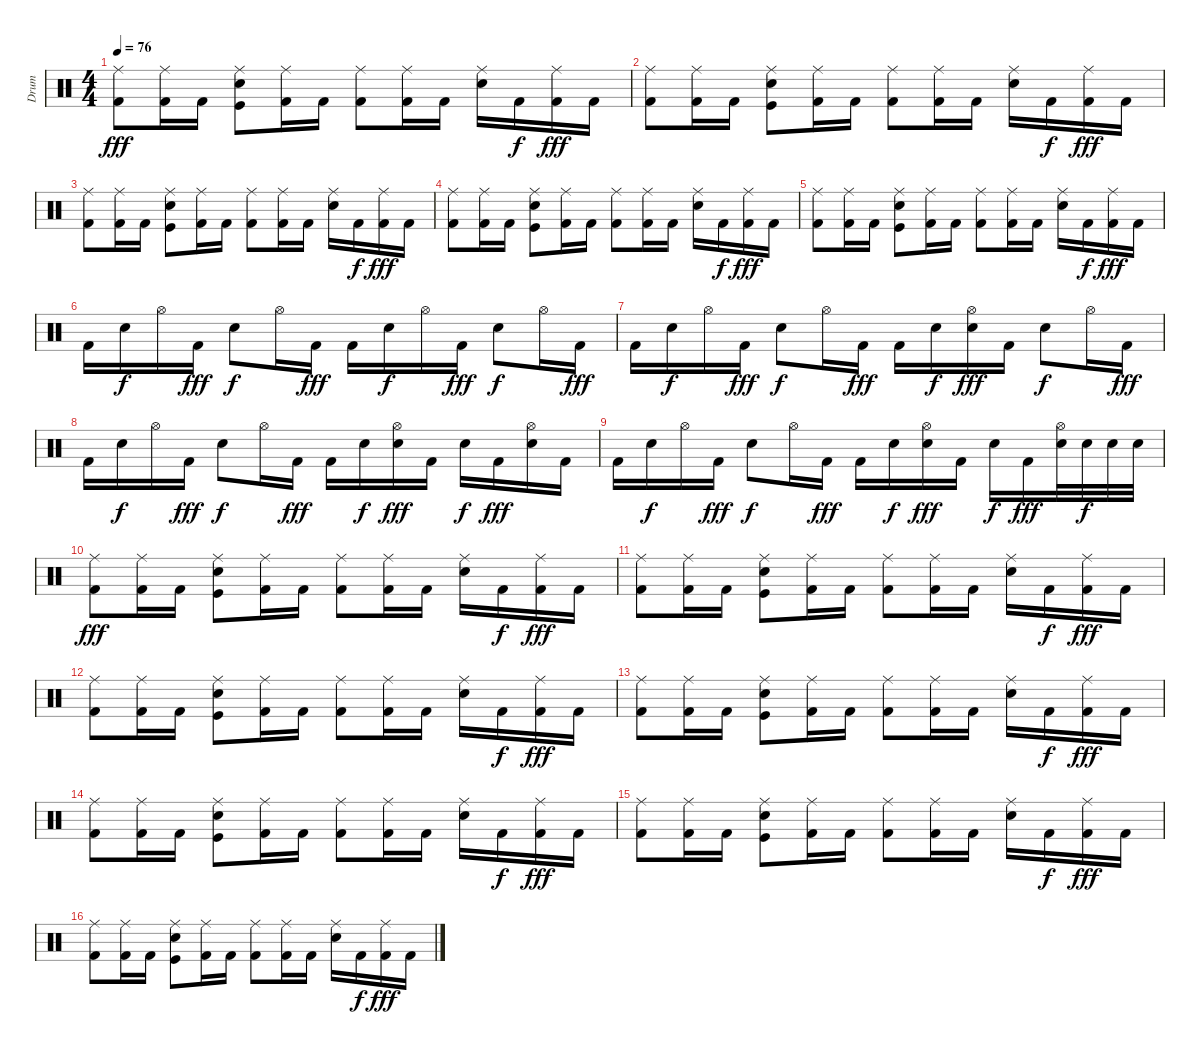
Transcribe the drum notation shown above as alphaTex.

\track ("Drum" "Drum") {instrument percussion}
\staff {score}
\articulation defaults
\ts (4 4)
\tempo 76
\clef neutral
\ks c
("Kick (hit) 2" "Ride (middle)").8{dy fff} ("Kick (hit) 2" "Ride (middle)").16 "Kick (hit) 2".16 ("Kick (hit)" "Electric Snare (hit)" "Ride (middle)").8 ("Kick (hit) 2" "Ride (middle)").16 "Kick (hit) 2".16 ("Kick (hit) 2" "Ride (middle)").8 ("Kick (hit) 2" "Ride (middle)").16 "Kick (hit) 2".16 ("Electric Snare (hit)" "Ride (middle)").16 "Kick (hit) 2".16{dy f} ("Kick (hit) 2" "Ride (middle)").16{dy fff} "Kick (hit) 2".16 |
("Kick (hit) 2" "Ride (middle)").8 ("Kick (hit) 2" "Ride (middle)").16 "Kick (hit) 2".16 ("Kick (hit)" "Electric Snare (hit)" "Ride (middle)").8 ("Kick (hit) 2" "Ride (middle)").16 "Kick (hit) 2".16 ("Kick (hit) 2" "Ride (middle)").8 ("Kick (hit) 2" "Ride (middle)").16 "Kick (hit) 2".16 ("Electric Snare (hit)" "Ride (middle)").16 "Kick (hit) 2".16{dy f} ("Kick (hit) 2" "Ride (middle)").16{dy fff} "Kick (hit) 2".16 |
("Kick (hit) 2" "Ride (middle)").8 ("Kick (hit) 2" "Ride (middle)").16 "Kick (hit) 2".16 ("Kick (hit)" "Electric Snare (hit)" "Ride (middle)").8 ("Kick (hit) 2" "Ride (middle)").16 "Kick (hit) 2".16 ("Kick (hit) 2" "Ride (middle)").8 ("Kick (hit) 2" "Ride (middle)").16 "Kick (hit) 2".16 ("Electric Snare (hit)" "Ride (middle)").16 "Kick (hit) 2".16{dy f} ("Kick (hit) 2" "Ride (middle)").16{dy fff} "Kick (hit) 2".16 |
("Kick (hit) 2" "Ride (middle)").8 ("Kick (hit) 2" "Ride (middle)").16 "Kick (hit) 2".16 ("Kick (hit)" "Electric Snare (hit)" "Ride (middle)").8 ("Kick (hit) 2" "Ride (middle)").16 "Kick (hit) 2".16 ("Kick (hit) 2" "Ride (middle)").8 ("Kick (hit) 2" "Ride (middle)").16 "Kick (hit) 2".16 ("Electric Snare (hit)" "Ride (middle)").16 "Kick (hit) 2".16{dy f} ("Kick (hit) 2" "Ride (middle)").16{dy fff} "Kick (hit) 2".16 |
("Kick (hit) 2" "Ride (middle)").8 ("Kick (hit) 2" "Ride (middle)").16 "Kick (hit) 2".16 ("Kick (hit)" "Electric Snare (hit)" "Ride (middle)").8 ("Kick (hit) 2" "Ride (middle)").16 "Kick (hit) 2".16 ("Kick (hit) 2" "Ride (middle)").8 ("Kick (hit) 2" "Ride (middle)").16 "Kick (hit) 2".16 ("Electric Snare (hit)" "Ride (middle)").16 "Kick (hit) 2".16{dy f} ("Kick (hit) 2" "Ride (middle)").16{dy fff} "Kick (hit) 2".16 |
"Kick (hit) 2".16 "Electric Snare (hit)".16{dy f} "Hi-Hat (open)".16 "Kick (hit) 2".16{dy fff} "Electric Snare (hit)".8{dy f} "Hi-Hat (open)".16 "Kick (hit) 2".16{dy fff} "Kick (hit) 2".16 "Electric Snare (hit)".16{dy f} "Hi-Hat (open)".16 "Kick (hit) 2".16{dy fff} "Electric Snare (hit)".8{dy f} "Hi-Hat (open)".16 "Kick (hit) 2".16{dy fff} |
"Kick (hit) 2".16 "Electric Snare (hit)".16{dy f} "Hi-Hat (open)".16 "Kick (hit) 2".16{dy fff} "Electric Snare (hit)".8{dy f} "Hi-Hat (open)".16 "Kick (hit) 2".16{dy fff} "Kick (hit) 2".16 "Electric Snare (hit)".16{dy f} ("Electric Snare (hit)" "Hi-Hat (open)").16{dy fff} "Kick (hit) 2".16 "Electric Snare (hit)".8{dy f} "Hi-Hat (open)".16 "Kick (hit) 2".16{dy fff} |
"Kick (hit) 2".16 "Electric Snare (hit)".16{dy f} "Hi-Hat (open)".16 "Kick (hit) 2".16{dy fff} "Electric Snare (hit)".8{dy f} "Hi-Hat (open)".16 "Kick (hit) 2".16{dy fff} "Kick (hit) 2".16 "Electric Snare (hit)".16{dy f} ("Electric Snare (hit)" "Hi-Hat (open)").16{dy fff} "Kick (hit) 2".16 "Electric Snare (hit)".16{dy f} "Kick (hit) 2".16{dy fff} ("Electric Snare (hit)" "Hi-Hat (open)").16 "Kick (hit) 2".16 |
"Kick (hit) 2".16 "Electric Snare (hit)".16{dy f} "Hi-Hat (open)".16 "Kick (hit) 2".16{dy fff} "Electric Snare (hit)".8{dy f} "Hi-Hat (open)".16 "Kick (hit) 2".16{dy fff} "Kick (hit) 2".16 "Electric Snare (hit)".16{dy f} ("Electric Snare (hit)" "Hi-Hat (open)").16{dy fff} "Kick (hit) 2".16 "Electric Snare (hit)".16{dy f} "Kick (hit) 2".16{dy fff} ("Electric Snare (hit)" "Hi-Hat (open)").32 "Electric Snare (hit)".32{dy f} "Electric Snare (hit)".32 "Electric Snare (hit)".32 |
("Kick (hit) 2" "Ride (middle)").8{dy fff} ("Kick (hit) 2" "Ride (middle)").16 "Kick (hit) 2".16 ("Kick (hit)" "Electric Snare (hit)" "Ride (middle)").8 ("Kick (hit) 2" "Ride (middle)").16 "Kick (hit) 2".16 ("Kick (hit) 2" "Ride (middle)").8 ("Kick (hit) 2" "Ride (middle)").16 "Kick (hit) 2".16 ("Electric Snare (hit)" "Ride (middle)").16 "Kick (hit) 2".16{dy f} ("Kick (hit) 2" "Ride (middle)").16{dy fff} "Kick (hit) 2".16 |
("Kick (hit) 2" "Ride (middle)").8 ("Kick (hit) 2" "Ride (middle)").16 "Kick (hit) 2".16 ("Kick (hit)" "Electric Snare (hit)" "Ride (middle)").8 ("Kick (hit) 2" "Ride (middle)").16 "Kick (hit) 2".16 ("Kick (hit) 2" "Ride (middle)").8 ("Kick (hit) 2" "Ride (middle)").16 "Kick (hit) 2".16 ("Electric Snare (hit)" "Ride (middle)").16 "Kick (hit) 2".16{dy f} ("Kick (hit) 2" "Ride (middle)").16{dy fff} "Kick (hit) 2".16 |
("Kick (hit) 2" "Ride (middle)").8 ("Kick (hit) 2" "Ride (middle)").16 "Kick (hit) 2".16 ("Kick (hit)" "Electric Snare (hit)" "Ride (middle)").8 ("Kick (hit) 2" "Ride (middle)").16 "Kick (hit) 2".16 ("Kick (hit) 2" "Ride (middle)").8 ("Kick (hit) 2" "Ride (middle)").16 "Kick (hit) 2".16 ("Electric Snare (hit)" "Ride (middle)").16 "Kick (hit) 2".16{dy f} ("Kick (hit) 2" "Ride (middle)").16{dy fff} "Kick (hit) 2".16 |
("Kick (hit) 2" "Ride (middle)").8 ("Kick (hit) 2" "Ride (middle)").16 "Kick (hit) 2".16 ("Kick (hit)" "Electric Snare (hit)" "Ride (middle)").8 ("Kick (hit) 2" "Ride (middle)").16 "Kick (hit) 2".16 ("Kick (hit) 2" "Ride (middle)").8 ("Kick (hit) 2" "Ride (middle)").16 "Kick (hit) 2".16 ("Electric Snare (hit)" "Ride (middle)").16 "Kick (hit) 2".16{dy f} ("Kick (hit) 2" "Ride (middle)").16{dy fff} "Kick (hit) 2".16 |
("Kick (hit) 2" "Ride (middle)").8 ("Kick (hit) 2" "Ride (middle)").16 "Kick (hit) 2".16 ("Kick (hit)" "Electric Snare (hit)" "Ride (middle)").8 ("Kick (hit) 2" "Ride (middle)").16 "Kick (hit) 2".16 ("Kick (hit) 2" "Ride (middle)").8 ("Kick (hit) 2" "Ride (middle)").16 "Kick (hit) 2".16 ("Electric Snare (hit)" "Ride (middle)").16 "Kick (hit) 2".16{dy f} ("Kick (hit) 2" "Ride (middle)").16{dy fff} "Kick (hit) 2".16 |
("Kick (hit) 2" "Ride (middle)").8 ("Kick (hit) 2" "Ride (middle)").16 "Kick (hit) 2".16 ("Kick (hit)" "Electric Snare (hit)" "Ride (middle)").8 ("Kick (hit) 2" "Ride (middle)").16 "Kick (hit) 2".16 ("Kick (hit) 2" "Ride (middle)").8 ("Kick (hit) 2" "Ride (middle)").16 "Kick (hit) 2".16 ("Electric Snare (hit)" "Ride (middle)").16 "Kick (hit) 2".16{dy f} ("Kick (hit) 2" "Ride (middle)").16{dy fff} "Kick (hit) 2".16 |
("Kick (hit) 2" "Ride (middle)").8 ("Kick (hit) 2" "Ride (middle)").16 "Kick (hit) 2".16 ("Kick (hit)" "Electric Snare (hit)" "Ride (middle)").8 ("Kick (hit) 2" "Ride (middle)").16 "Kick (hit) 2".16 ("Kick (hit) 2" "Ride (middle)").8 ("Kick (hit) 2" "Ride (middle)").16 "Kick (hit) 2".16 ("Electric Snare (hit)" "Ride (middle)").16 "Kick (hit) 2".16{dy f} ("Kick (hit) 2" "Ride (middle)").16{dy fff} "Kick (hit) 2".16
